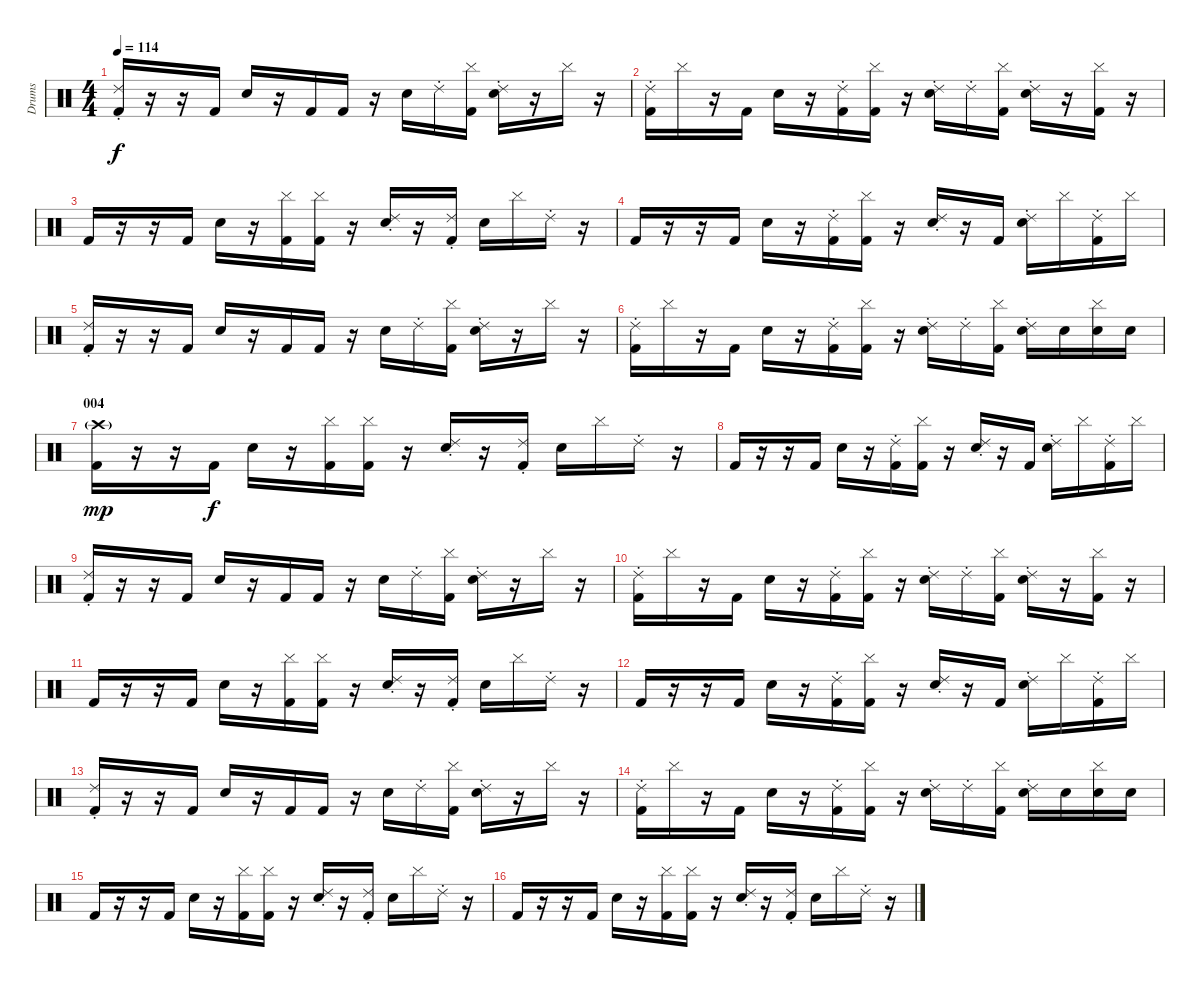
\track ("Drums" "Drums") {instrument percussion}
\staff {score}
\articulation defaults
\ts (4 4)
\tempo 114
\clef neutral
\ks c
("Kick (hit) 2" "Ride (choke) 2").16{dy f} r.16 r.16 "Kick (hit) 2".16 "Electric Snare (hit)".16 r.16 "Kick (hit) 2".16 "Kick (hit) 2".16 r.16 "Electric Snare (hit)".16 "Ride (choke) 2".16 ("Kick (hit) 2" "Cymbal (hit)").16 ("Electric Snare (hit)" "Ride (choke) 2").16 r.16 "Cymbal (hit)".16 r.16 |
("Kick (hit) 2" "Ride (choke) 2").16 "Cymbal (hit)".16 r.16 "Kick (hit) 2".16 "Electric Snare (hit)".16 r.16 ("Kick (hit) 2" "Ride (choke) 2").16 ("Kick (hit) 2" "Cymbal (hit)").16 r.16 ("Electric Snare (hit)" "Ride (choke) 2").16 "Ride (choke) 2".16 ("Kick (hit) 2" "Cymbal (hit)").16 ("Electric Snare (hit)" "Ride (choke) 2").16 r.16 ("Kick (hit) 2" "Cymbal (hit)").16 r.16 |
"Kick (hit) 2".16 r.16 r.16 "Kick (hit) 2".16 "Electric Snare (hit)".16 r.16 ("Kick (hit) 2" "Cymbal (hit)").16 ("Kick (hit) 2" "Cymbal (hit)").16 r.16 ("Electric Snare (hit)" "Ride (choke) 2").16 r.16 ("Kick (hit) 2" "Ride (choke) 2").16 "Electric Snare (hit)".16 "Cymbal (hit)".16 "Ride (choke) 2".16 r.16 |
"Kick (hit) 2".16 r.16 r.16 "Kick (hit) 2".16 "Electric Snare (hit)".16 r.16 ("Kick (hit) 2" "Ride (choke) 2").16 ("Kick (hit) 2" "Cymbal (hit)").16 r.16 ("Electric Snare (hit)" "Ride (choke) 2").16 r.16 "Kick (hit) 2".16 ("Electric Snare (hit)" "Ride (choke) 2").16 "Cymbal (hit)".16 ("Kick (hit) 2" "Ride (choke) 2").16 "Cymbal (hit)".16 |
("Kick (hit) 2" "Ride (choke) 2").16 r.16 r.16 "Kick (hit) 2".16 "Electric Snare (hit)".16 r.16 "Kick (hit) 2".16 "Kick (hit) 2".16 r.16 "Electric Snare (hit)".16 "Ride (choke) 2".16 ("Kick (hit) 2" "Cymbal (hit)").16 ("Electric Snare (hit)" "Ride (choke) 2").16 r.16 "Cymbal (hit)".16 r.16 |
("Kick (hit) 2" "Ride (choke) 2").16 "Cymbal (hit)".16 r.16 "Kick (hit) 2".16 "Electric Snare (hit)".16 r.16 ("Kick (hit) 2" "Ride (choke) 2").16 ("Kick (hit) 2" "Cymbal (hit)").16 r.16 ("Electric Snare (hit)" "Ride (choke) 2").16 "Ride (choke) 2".16 ("Kick (hit) 2" "Cymbal (hit)").16 ("Electric Snare (hit)" "Ride (choke) 2").16 "Electric Snare (hit)".16 ("Electric Snare (hit)" "Cymbal (hit)").16 "Electric Snare (hit)".16 |
\section ("" "004")
("Kick (hit) 2" "Crash high (hit)"{g}).16{dy mp} r.16 r.16 "Kick (hit) 2".16{dy f} "Electric Snare (hit)".16 r.16 ("Kick (hit) 2" "Cymbal (hit)").16 ("Kick (hit) 2" "Cymbal (hit)").16 r.16 ("Electric Snare (hit)" "Ride (choke) 2").16 r.16 ("Kick (hit) 2" "Ride (choke) 2").16 "Electric Snare (hit)".16 "Cymbal (hit)".16 "Ride (choke) 2".16 r.16 |
"Kick (hit) 2".16 r.16 r.16 "Kick (hit) 2".16 "Electric Snare (hit)".16 r.16 ("Kick (hit) 2" "Ride (choke) 2").16 ("Kick (hit) 2" "Cymbal (hit)").16 r.16 ("Electric Snare (hit)" "Ride (choke) 2").16 r.16 "Kick (hit) 2".16 ("Electric Snare (hit)" "Ride (choke) 2").16 "Cymbal (hit)".16 ("Kick (hit) 2" "Ride (choke) 2").16 "Cymbal (hit)".16 |
("Kick (hit) 2" "Ride (choke) 2").16 r.16 r.16 "Kick (hit) 2".16 "Electric Snare (hit)".16 r.16 "Kick (hit) 2".16 "Kick (hit) 2".16 r.16 "Electric Snare (hit)".16 "Ride (choke) 2".16 ("Kick (hit) 2" "Cymbal (hit)").16 ("Electric Snare (hit)" "Ride (choke) 2").16 r.16 "Cymbal (hit)".16 r.16 |
("Kick (hit) 2" "Ride (choke) 2").16 "Cymbal (hit)".16 r.16 "Kick (hit) 2".16 "Electric Snare (hit)".16 r.16 ("Kick (hit) 2" "Ride (choke) 2").16 ("Kick (hit) 2" "Cymbal (hit)").16 r.16 ("Electric Snare (hit)" "Ride (choke) 2").16 "Ride (choke) 2".16 ("Kick (hit) 2" "Cymbal (hit)").16 ("Electric Snare (hit)" "Ride (choke) 2").16 r.16 ("Kick (hit) 2" "Cymbal (hit)").16 r.16 |
"Kick (hit) 2".16 r.16 r.16 "Kick (hit) 2".16 "Electric Snare (hit)".16 r.16 ("Kick (hit) 2" "Cymbal (hit)").16 ("Kick (hit) 2" "Cymbal (hit)").16 r.16 ("Electric Snare (hit)" "Ride (choke) 2").16 r.16 ("Kick (hit) 2" "Ride (choke) 2").16 "Electric Snare (hit)".16 "Cymbal (hit)".16 "Ride (choke) 2".16 r.16 |
"Kick (hit) 2".16 r.16 r.16 "Kick (hit) 2".16 "Electric Snare (hit)".16 r.16 ("Kick (hit) 2" "Ride (choke) 2").16 ("Kick (hit) 2" "Cymbal (hit)").16 r.16 ("Electric Snare (hit)" "Ride (choke) 2").16 r.16 "Kick (hit) 2".16 ("Electric Snare (hit)" "Ride (choke) 2").16 "Cymbal (hit)".16 ("Kick (hit) 2" "Ride (choke) 2").16 "Cymbal (hit)".16 |
("Kick (hit) 2" "Ride (choke) 2").16 r.16 r.16 "Kick (hit) 2".16 "Electric Snare (hit)".16 r.16 "Kick (hit) 2".16 "Kick (hit) 2".16 r.16 "Electric Snare (hit)".16 "Ride (choke) 2".16 ("Kick (hit) 2" "Cymbal (hit)").16 ("Electric Snare (hit)" "Ride (choke) 2").16 r.16 "Cymbal (hit)".16 r.16 |
("Kick (hit) 2" "Ride (choke) 2").16 "Cymbal (hit)".16 r.16 "Kick (hit) 2".16 "Electric Snare (hit)".16 r.16 ("Kick (hit) 2" "Ride (choke) 2").16 ("Kick (hit) 2" "Cymbal (hit)").16 r.16 ("Electric Snare (hit)" "Ride (choke) 2").16 "Ride (choke) 2".16 ("Kick (hit) 2" "Cymbal (hit)").16 ("Electric Snare (hit)" "Ride (choke) 2").16 "Electric Snare (hit)".16 ("Electric Snare (hit)" "Cymbal (hit)").16 "Electric Snare (hit)".16 |
"Kick (hit) 2".16 r.16 r.16 "Kick (hit) 2".16 "Electric Snare (hit)".16 r.16 ("Kick (hit) 2" "Cymbal (hit)").16 ("Kick (hit) 2" "Cymbal (hit)").16 r.16 ("Electric Snare (hit)" "Ride (choke) 2").16 r.16 ("Kick (hit) 2" "Ride (choke) 2").16 "Electric Snare (hit)".16 "Cymbal (hit)".16 "Ride (choke) 2".16 r.16 |
"Kick (hit) 2".16 r.16 r.16 "Kick (hit) 2".16 "Electric Snare (hit)".16 r.16 ("Kick (hit) 2" "Cymbal (hit)").16 ("Kick (hit) 2" "Cymbal (hit)").16 r.16 ("Electric Snare (hit)" "Ride (choke) 2").16 r.16 ("Kick (hit) 2" "Ride (choke) 2").16 "Electric Snare (hit)".16 "Cymbal (hit)".16 "Ride (choke) 2".16 r.16
